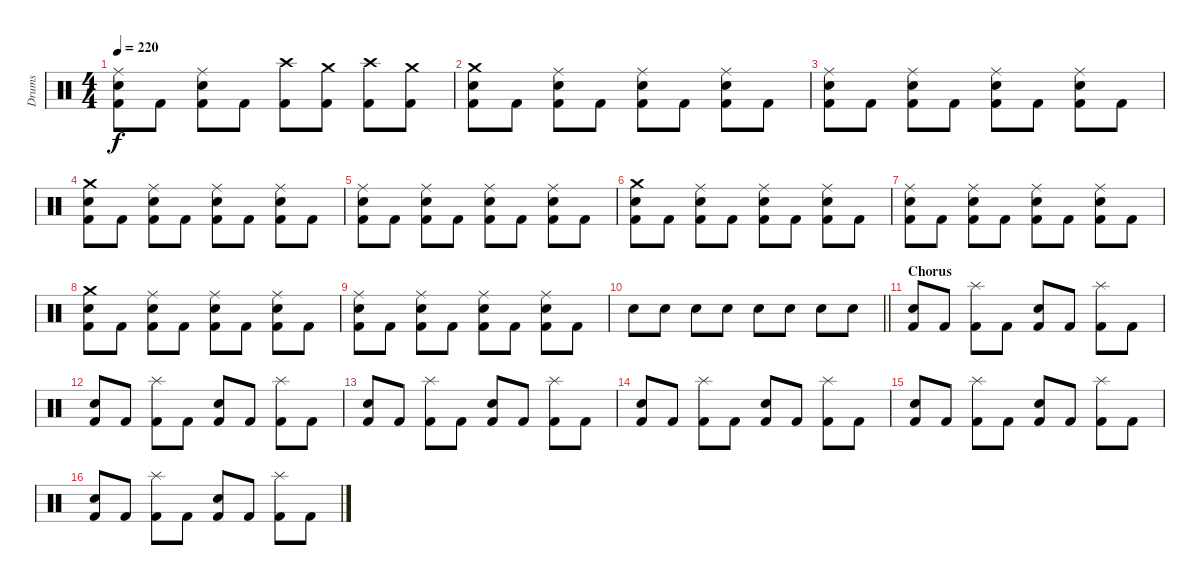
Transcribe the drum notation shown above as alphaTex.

\track ("Drums" "Drums") {instrument percussion}
\staff {score}
\articulation defaults
\ts (4 4)
\tempo 220
\clef neutral
\ks c
("Kick (hit) 2" "Snare (hit) 2" "Ride (middle)").8{dy f} "Kick (hit) 2".8 ("Kick (hit) 2" "Snare (hit) 2" "Ride (middle)").8 "Kick (hit) 2".8 ("Kick (hit) 2" "Crash high (hit)").8 ("Kick (hit) 2" "Crash medium (hit)").8 ("Kick (hit) 2" "Crash high (hit)").8 ("Kick (hit) 2" "Crash medium (hit)").8 |
("Kick (hit) 2" "Snare (hit) 2" "Crash medium (hit)").8 "Kick (hit) 2".8 ("Kick (hit) 2" "Snare (hit) 2" "Ride (middle)").8 "Kick (hit) 2".8 ("Kick (hit) 2" "Snare (hit) 2" "Ride (middle)").8 "Kick (hit) 2".8 ("Kick (hit) 2" "Snare (hit) 2" "Ride (middle)").8 "Kick (hit) 2".8 |
("Kick (hit) 2" "Snare (hit) 2" "Ride (middle)").8 "Kick (hit) 2".8 ("Kick (hit) 2" "Snare (hit) 2" "Ride (middle)").8 "Kick (hit) 2".8 ("Kick (hit) 2" "Snare (hit) 2" "Ride (middle)").8 "Kick (hit) 2".8 ("Kick (hit) 2" "Snare (hit) 2" "Ride (middle)").8 "Kick (hit) 2".8 |
("Kick (hit) 2" "Snare (hit) 2" "Crash medium (hit)").8 "Kick (hit) 2".8 ("Kick (hit) 2" "Snare (hit) 2" "Ride (middle)").8 "Kick (hit) 2".8 ("Kick (hit) 2" "Snare (hit) 2" "Ride (middle)").8 "Kick (hit) 2".8 ("Kick (hit) 2" "Snare (hit) 2" "Ride (middle)").8 "Kick (hit) 2".8 |
("Kick (hit) 2" "Snare (hit) 2" "Ride (middle)").8 "Kick (hit) 2".8 ("Kick (hit) 2" "Snare (hit) 2" "Ride (middle)").8 "Kick (hit) 2".8 ("Kick (hit) 2" "Snare (hit) 2" "Ride (middle)").8 "Kick (hit) 2".8 ("Kick (hit) 2" "Snare (hit) 2" "Ride (middle)").8 "Kick (hit) 2".8 |
("Kick (hit) 2" "Snare (hit) 2" "Crash medium (hit)").8 "Kick (hit) 2".8 ("Kick (hit) 2" "Snare (hit) 2" "Ride (middle)").8 "Kick (hit) 2".8 ("Kick (hit) 2" "Snare (hit) 2" "Ride (middle)").8 "Kick (hit) 2".8 ("Kick (hit) 2" "Snare (hit) 2" "Ride (middle)").8 "Kick (hit) 2".8 |
("Kick (hit) 2" "Snare (hit) 2" "Ride (middle)").8 "Kick (hit) 2".8 ("Kick (hit) 2" "Snare (hit) 2" "Ride (middle)").8 "Kick (hit) 2".8 ("Kick (hit) 2" "Snare (hit) 2" "Ride (middle)").8 "Kick (hit) 2".8 ("Kick (hit) 2" "Snare (hit) 2" "Ride (middle)").8 "Kick (hit) 2".8 |
("Kick (hit) 2" "Snare (hit) 2" "Crash medium (hit)").8 "Kick (hit) 2".8 ("Kick (hit) 2" "Snare (hit) 2" "Ride (middle)").8 "Kick (hit) 2".8 ("Kick (hit) 2" "Snare (hit) 2" "Ride (middle)").8 "Kick (hit) 2".8 ("Kick (hit) 2" "Snare (hit) 2" "Ride (middle)").8 "Kick (hit) 2".8 |
("Kick (hit) 2" "Snare (hit) 2" "Ride (middle)").8 "Kick (hit) 2".8 ("Kick (hit) 2" "Snare (hit) 2" "Ride (middle)").8 "Kick (hit) 2".8 ("Kick (hit) 2" "Snare (hit) 2" "Ride (middle)").8 "Kick (hit) 2".8 ("Kick (hit) 2" "Snare (hit) 2" "Ride (middle)").8 "Kick (hit) 2".8 |
\barLineRight lightlight "Snare (hit) 2".8 "Snare (hit) 2".8 "Snare (hit) 2".8 "Snare (hit) 2".8 "Snare (hit) 2".8 "Snare (hit) 2".8 "Snare (hit) 2".8 "Snare (hit) 2".8
|
\section ("" "Chorus")
("Kick (hit) 2" "Snare (hit) 2").8 "Kick (hit) 2".8 ("Kick (hit) 2" "Splash (hit)").8 "Kick (hit) 2".8 ("Kick (hit) 2" "Snare (hit) 2").8 "Kick (hit) 2".8 ("Kick (hit) 2" "Splash (hit)").8 "Kick (hit) 2".8 |
("Kick (hit) 2" "Snare (hit) 2").8 "Kick (hit) 2".8 ("Kick (hit) 2" "Splash (hit)").8 "Kick (hit) 2".8 ("Kick (hit) 2" "Snare (hit) 2").8 "Kick (hit) 2".8 ("Kick (hit) 2" "Splash (hit)").8 "Kick (hit) 2".8 |
("Kick (hit) 2" "Snare (hit) 2").8 "Kick (hit) 2".8 ("Kick (hit) 2" "Splash (hit)").8 "Kick (hit) 2".8 ("Kick (hit) 2" "Snare (hit) 2").8 "Kick (hit) 2".8 ("Kick (hit) 2" "Splash (hit)").8 "Kick (hit) 2".8 |
("Kick (hit) 2" "Snare (hit) 2").8 "Kick (hit) 2".8 ("Kick (hit) 2" "Splash (hit)").8 "Kick (hit) 2".8 ("Kick (hit) 2" "Snare (hit) 2").8 "Kick (hit) 2".8 ("Kick (hit) 2" "Splash (hit)").8 "Kick (hit) 2".8 |
("Kick (hit) 2" "Snare (hit) 2").8 "Kick (hit) 2".8 ("Kick (hit) 2" "Splash (hit)").8 "Kick (hit) 2".8 ("Kick (hit) 2" "Snare (hit) 2").8 "Kick (hit) 2".8 ("Kick (hit) 2" "Splash (hit)").8 "Kick (hit) 2".8 |
("Kick (hit) 2" "Snare (hit) 2").8 "Kick (hit) 2".8 ("Kick (hit) 2" "Splash (hit)").8 "Kick (hit) 2".8 ("Kick (hit) 2" "Snare (hit) 2").8 "Kick (hit) 2".8 ("Kick (hit) 2" "Splash (hit)").8 "Kick (hit) 2".8
